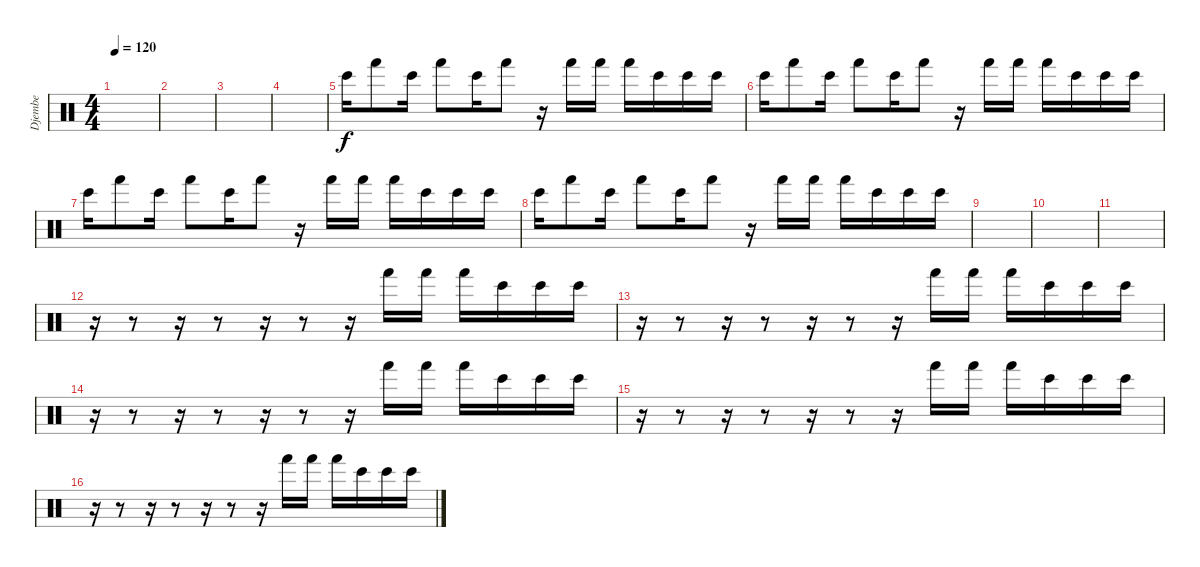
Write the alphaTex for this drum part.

\track ("Djembe" "Djembe") {instrument percussion}
\staff {score}
\articulation defaults
\ts (4 4)
\tempo 120
\clef neutral
\ks c
|
|
|
|
"Bongo High (hit)".16 "Hand (hit)".8 "Bongo High (hit)".16 "Hand (hit)".8 "Bongo High (hit)".16 "Hand (hit)".8 r.16 "Hand (hit)".16 "Hand (hit)".16 "Hand (hit)".16 "Bongo High (hit)".16 "Bongo High (hit)".16 "Bongo High (hit)".16 |
"Bongo High (hit)".16 "Hand (hit)".8 "Bongo High (hit)".16 "Hand (hit)".8 "Bongo High (hit)".16 "Hand (hit)".8 r.16 "Hand (hit)".16 "Hand (hit)".16 "Hand (hit)".16 "Bongo High (hit)".16 "Bongo High (hit)".16 "Bongo High (hit)".16 |
"Bongo High (hit)".16 "Hand (hit)".8 "Bongo High (hit)".16 "Hand (hit)".8 "Bongo High (hit)".16 "Hand (hit)".8 r.16 "Hand (hit)".16 "Hand (hit)".16 "Hand (hit)".16 "Bongo High (hit)".16 "Bongo High (hit)".16 "Bongo High (hit)".16 |
"Bongo High (hit)".16 "Hand (hit)".8 "Bongo High (hit)".16 "Hand (hit)".8 "Bongo High (hit)".16 "Hand (hit)".8 r.16 "Hand (hit)".16 "Hand (hit)".16 "Hand (hit)".16 "Bongo High (hit)".16 "Bongo High (hit)".16 "Bongo High (hit)".16 |
|
|
|
r.16 r.8 r.16 r.8 r.16 r.8 r.16 "Hand (hit)".16 "Hand (hit)".16 "Hand (hit)".16 "Bongo High (hit)".16 "Bongo High (hit)".16 "Bongo High (hit)".16 |
r.16 r.8 r.16 r.8 r.16 r.8 r.16 "Hand (hit)".16 "Hand (hit)".16 "Hand (hit)".16 "Bongo High (hit)".16 "Bongo High (hit)".16 "Bongo High (hit)".16 |
r.16 r.8 r.16 r.8 r.16 r.8 r.16 "Hand (hit)".16 "Hand (hit)".16 "Hand (hit)".16 "Bongo High (hit)".16 "Bongo High (hit)".16 "Bongo High (hit)".16 |
r.16 r.8 r.16 r.8 r.16 r.8 r.16 "Hand (hit)".16 "Hand (hit)".16 "Hand (hit)".16 "Bongo High (hit)".16 "Bongo High (hit)".16 "Bongo High (hit)".16 |
r.16 r.8 r.16 r.8 r.16 r.8 r.16 "Hand (hit)".16 "Hand (hit)".16 "Hand (hit)".16 "Bongo High (hit)".16 "Bongo High (hit)".16 "Bongo High (hit)".16
